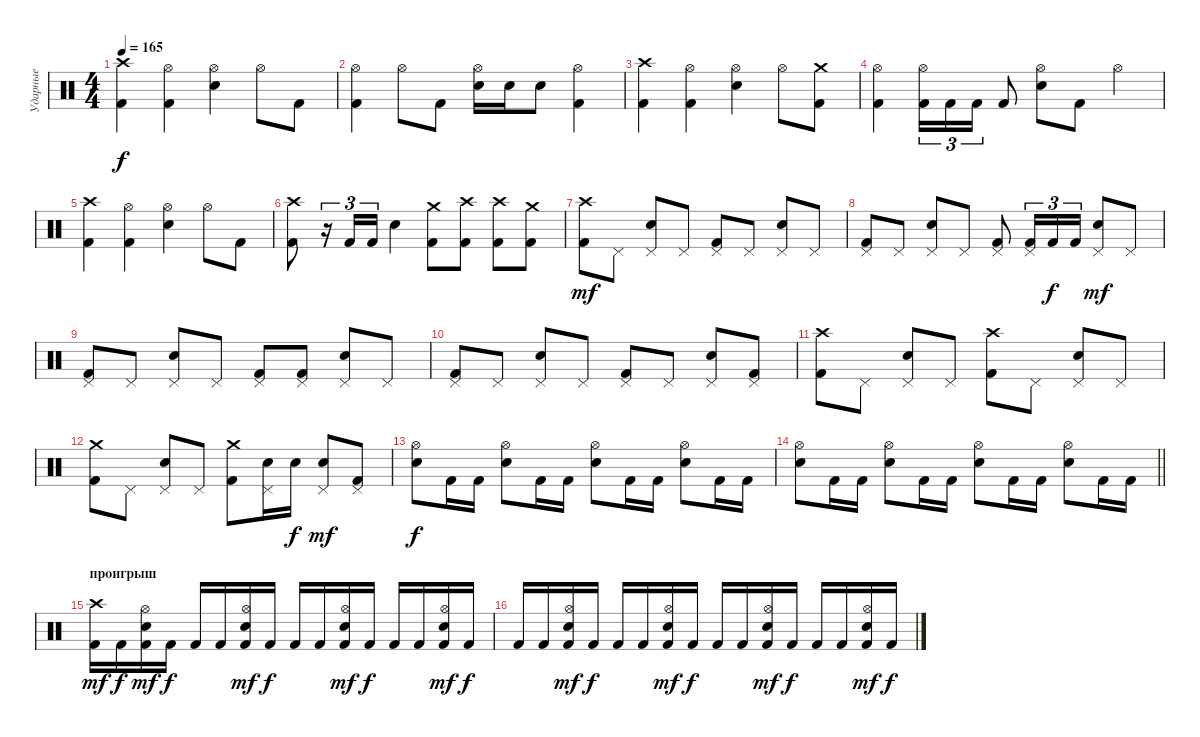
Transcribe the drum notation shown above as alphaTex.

\track ("Ударные" "Ударные") {instrument percussion}
\staff {score}
\articulation defaults
\ts (4 4)
\tempo 165
\clef neutral
\ks c
("Kick (hit) 2" "Crash high (hit)").4{dy f} ("Kick (hit) 2" "Hi-Hat (open)").4 ("Electric Snare (hit)" "Hi-Hat (open)").4 "Hi-Hat (open)".8 "Kick (hit) 2".8 |
("Kick (hit) 2" "Hi-Hat (open)").4 "Hi-Hat (open)".8 "Kick (hit) 2".8 ("Electric Snare (hit)" "Hi-Hat (open)").16 "Electric Snare (hit)".16 "Electric Snare (hit)".8 ("Kick (hit) 2" "Hi-Hat (open)").4 |
("Kick (hit) 2" "Crash high (hit)").4 ("Kick (hit) 2" "Hi-Hat (open)").4 ("Electric Snare (hit)" "Hi-Hat (open)").4 "Hi-Hat (open)".8 ("Kick (hit) 2" "Crash medium (hit)").8 |
("Kick (hit) 2" "Hi-Hat (open)").4 ("Kick (hit) 2" "Hi-Hat (open)").16{tu (3 2)} "Kick (hit) 2".16{tu (3 2)} "Kick (hit) 2".16{tu (3 2)} "Kick (hit) 2".8 ("Electric Snare (hit)" "Hi-Hat (open)").8 "Kick (hit) 2".8 "Hi-Hat (open)".4 |
("Kick (hit) 2" "Crash high (hit)").4 ("Kick (hit) 2" "Hi-Hat (open)").4 ("Electric Snare (hit)" "Hi-Hat (open)").4 "Hi-Hat (open)".8 "Kick (hit) 2".8 |
("Kick (hit) 2" "Crash high (hit)").8 r.16{tu (3 2)} "Kick (hit) 2".16{tu (3 2)} "Kick (hit) 2".16{tu (3 2)} "Electric Snare (hit)".4 ("Kick (hit) 2" "Crash medium (hit)").8 ("Kick (hit) 2" "Crash high (hit)").8 ("Kick (hit) 2" "Crash high (hit)").8 ("Kick (hit) 2" "Crash medium (hit)").8 |
("Kick (hit) 2" "Crash high (hit)").8{dy mf} "Pedal Hi-Hat (hit)".8 ("Electric Snare (hit)" "Pedal Hi-Hat (hit)").8 "Pedal Hi-Hat (hit)".8 ("Kick (hit) 2" "Pedal Hi-Hat (hit)").8 "Pedal Hi-Hat (hit)".8 ("Electric Snare (hit)" "Pedal Hi-Hat (hit)").8 "Pedal Hi-Hat (hit)".8 |
("Kick (hit) 2" "Pedal Hi-Hat (hit)").8 "Pedal Hi-Hat (hit)".8 ("Electric Snare (hit)" "Pedal Hi-Hat (hit)").8 "Pedal Hi-Hat (hit)".8 ("Kick (hit) 2" "Pedal Hi-Hat (hit)").8 ("Kick (hit) 2" "Pedal Hi-Hat (hit)").16{tu (3 2)} "Kick (hit) 2".16{tu (3 2) dy f} "Kick (hit) 2".16{tu (3 2)} ("Electric Snare (hit)" "Pedal Hi-Hat (hit)").8{dy mf} "Pedal Hi-Hat (hit)".8 |
("Kick (hit) 2" "Pedal Hi-Hat (hit)").8 "Pedal Hi-Hat (hit)".8 ("Electric Snare (hit)" "Pedal Hi-Hat (hit)").8 "Pedal Hi-Hat (hit)".8 ("Kick (hit) 2" "Pedal Hi-Hat (hit)").8 ("Kick (hit) 2" "Pedal Hi-Hat (hit)").8 ("Electric Snare (hit)" "Pedal Hi-Hat (hit)").8 "Pedal Hi-Hat (hit)".8 |
("Kick (hit) 2" "Pedal Hi-Hat (hit)").8 "Pedal Hi-Hat (hit)".8 ("Electric Snare (hit)" "Pedal Hi-Hat (hit)").8 "Pedal Hi-Hat (hit)".8 ("Kick (hit) 2" "Pedal Hi-Hat (hit)").8 "Pedal Hi-Hat (hit)".8 ("Electric Snare (hit)" "Pedal Hi-Hat (hit)").8 ("Kick (hit) 2" "Pedal Hi-Hat (hit)").8 |
("Kick (hit) 2" "Crash high (hit)").8 "Pedal Hi-Hat (hit)".8 ("Electric Snare (hit)" "Pedal Hi-Hat (hit)").8 "Pedal Hi-Hat (hit)".8 ("Kick (hit) 2" "Crash high (hit)").8 "Pedal Hi-Hat (hit)".8 ("Electric Snare (hit)" "Pedal Hi-Hat (hit)").8 "Pedal Hi-Hat (hit)".8 |
("Kick (hit) 2" "Crash medium (hit)").8 "Pedal Hi-Hat (hit)".8 ("Electric Snare (hit)" "Pedal Hi-Hat (hit)").8 "Pedal Hi-Hat (hit)".8 ("Kick (hit) 2" "Crash medium (hit)").8 ("Electric Snare (hit)" "Pedal Hi-Hat (hit)").16 "Electric Snare (hit)".16{dy f} ("Electric Snare (hit)" "Pedal Hi-Hat (hit)").8{dy mf} ("Kick (hit) 2" "Pedal Hi-Hat (hit)").8 |
("Electric Snare (hit)" "Hi-Hat (open)").8{dy f} "Kick (hit) 2".16 "Kick (hit) 2".16 ("Electric Snare (hit)" "Hi-Hat (open)").8 "Kick (hit) 2".16 "Kick (hit) 2".16 ("Electric Snare (hit)" "Hi-Hat (open)").8 "Kick (hit) 2".16 "Kick (hit) 2".16 ("Electric Snare (hit)" "Hi-Hat (open)").8 "Kick (hit) 2".16 "Kick (hit) 2".16 |
\barLineRight lightlight
("Electric Snare (hit)" "Hi-Hat (open)").8 "Kick (hit) 2".16 "Kick (hit) 2".16 ("Electric Snare (hit)" "Hi-Hat (open)").8 "Kick (hit) 2".16 "Kick (hit) 2".16 ("Electric Snare (hit)" "Hi-Hat (open)").8 "Kick (hit) 2".16 "Kick (hit) 2".16 ("Electric Snare (hit)" "Hi-Hat (open)").8 "Kick (hit) 2".16 "Kick (hit) 2".16 |
\section ("" "проигрыш")
("Kick (hit) 2" "Crash high (hit)").16{dy mf} "Kick (hit) 2".16{dy f} ("Kick (hit) 2" "Electric Snare (hit)" "Hi-Hat (open)").16{dy mf} "Kick (hit) 2".16{dy f} "Kick (hit) 2".16 "Kick (hit) 2".16 ("Kick (hit) 2" "Electric Snare (hit)" "Hi-Hat (open)").16{dy mf} "Kick (hit) 2".16{dy f} "Kick (hit) 2".16 "Kick (hit) 2".16 ("Kick (hit) 2" "Electric Snare (hit)" "Hi-Hat (open)").16{dy mf} "Kick (hit) 2".16{dy f} "Kick (hit) 2".16 "Kick (hit) 2".16 ("Kick (hit) 2" "Electric Snare (hit)" "Hi-Hat (open)").16{dy mf} "Kick (hit) 2".16{dy f} |
"Kick (hit) 2".16 "Kick (hit) 2".16 ("Kick (hit) 2" "Electric Snare (hit)" "Hi-Hat (open)").16{dy mf} "Kick (hit) 2".16{dy f} "Kick (hit) 2".16 "Kick (hit) 2".16 ("Kick (hit) 2" "Electric Snare (hit)" "Hi-Hat (open)").16{dy mf} "Kick (hit) 2".16{dy f} "Kick (hit) 2".16 "Kick (hit) 2".16 ("Kick (hit) 2" "Electric Snare (hit)" "Hi-Hat (open)").16{dy mf} "Kick (hit) 2".16{dy f} "Kick (hit) 2".16 "Kick (hit) 2".16 ("Kick (hit) 2" "Electric Snare (hit)" "Hi-Hat (open)").16{dy mf} "Kick (hit) 2".16{dy f}
